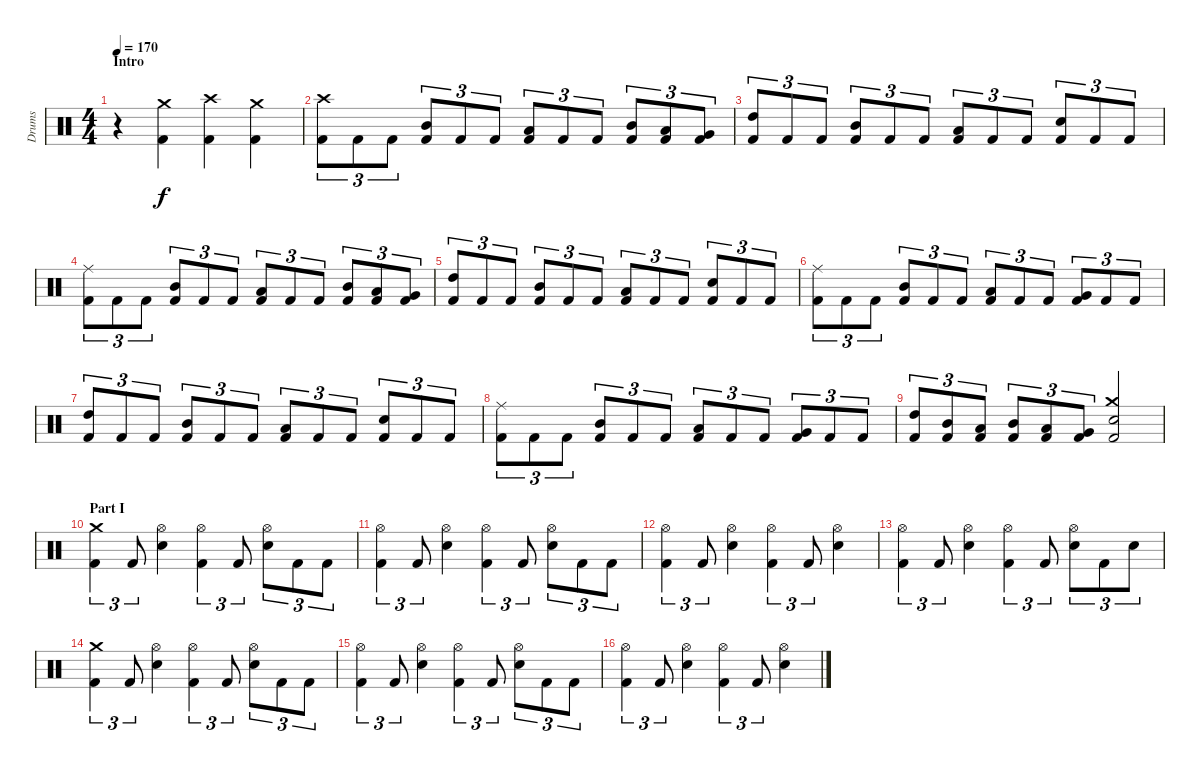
\track ("Drums" "Drums") {instrument percussion}
\staff {score}
\articulation defaults
\ts (4 4)
\section ("" "Intro")
\tempo 170
\clef neutral
\ks c
r.4{dy f} ("Kick (hit) 2" "Crash medium (hit)").4 ("Kick (hit) 2" "Crash high (hit)").4 ("Kick (hit) 2" "Crash medium (hit)").4 |
("Kick (hit) 2" "Crash high (hit)").8{tu (3 2)} "Kick (hit) 2".8{tu (3 2)} "Kick (hit) 2".8{tu (3 2)} ("Kick (hit) 2" "Mid Tom (hit)").8{tu (3 2)} "Kick (hit) 2".8{tu (3 2)} "Kick (hit) 2".8{tu (3 2)} ("Kick (hit) 2" "Low Tom (hit)").8{tu (3 2)} "Kick (hit) 2".8{tu (3 2)} "Kick (hit) 2".8{tu (3 2)} ("Kick (hit) 2" "Mid Tom (hit)").8{tu (3 2)} ("Kick (hit) 2" "Low Tom (hit)").8{tu (3 2)} ("Kick (hit) 2" "Very Low Tom (hit)").8{tu (3 2)} |
("Kick (hit) 2" "High Tom (hit)").8{tu (3 2)} "Kick (hit) 2".8{tu (3 2)} "Kick (hit) 2".8{tu (3 2)} ("Kick (hit) 2" "Mid Tom (hit)").8{tu (3 2)} "Kick (hit) 2".8{tu (3 2)} "Kick (hit) 2".8{tu (3 2)} ("Kick (hit) 2" "Low Tom (hit)").8{tu (3 2)} "Kick (hit) 2".8{tu (3 2)} "Kick (hit) 2".8{tu (3 2)} ("Kick (hit) 2" "Electric Snare (hit)").8{tu (3 2)} "Kick (hit) 2".8{tu (3 2)} "Kick (hit) 2".8{tu (3 2)} |
("Kick (hit) 2" "Ride (middle)").8{tu (3 2)} "Kick (hit) 2".8{tu (3 2)} "Kick (hit) 2".8{tu (3 2)} ("Kick (hit) 2" "Mid Tom (hit)").8{tu (3 2)} "Kick (hit) 2".8{tu (3 2)} "Kick (hit) 2".8{tu (3 2)} ("Kick (hit) 2" "Low Tom (hit)").8{tu (3 2)} "Kick (hit) 2".8{tu (3 2)} "Kick (hit) 2".8{tu (3 2)} ("Kick (hit) 2" "Mid Tom (hit)").8{tu (3 2)} ("Kick (hit) 2" "Low Tom (hit)").8{tu (3 2)} ("Kick (hit) 2" "Very Low Tom (hit)").8{tu (3 2)} |
("Kick (hit) 2" "High Tom (hit)").8{tu (3 2)} "Kick (hit) 2".8{tu (3 2)} "Kick (hit) 2".8{tu (3 2)} ("Kick (hit) 2" "Mid Tom (hit)").8{tu (3 2)} "Kick (hit) 2".8{tu (3 2)} "Kick (hit) 2".8{tu (3 2)} ("Kick (hit) 2" "Low Tom (hit)").8{tu (3 2)} "Kick (hit) 2".8{tu (3 2)} "Kick (hit) 2".8{tu (3 2)} ("Kick (hit) 2" "Electric Snare (hit)").8{tu (3 2)} "Kick (hit) 2".8{tu (3 2)} "Kick (hit) 2".8{tu (3 2)} |
("Kick (hit) 2" "Ride (middle)").8{tu (3 2)} "Kick (hit) 2".8{tu (3 2)} "Kick (hit) 2".8{tu (3 2)} ("Kick (hit) 2" "Mid Tom (hit)").8{tu (3 2)} "Kick (hit) 2".8{tu (3 2)} "Kick (hit) 2".8{tu (3 2)} ("Kick (hit) 2" "Low Tom (hit)").8{tu (3 2)} "Kick (hit) 2".8{tu (3 2)} "Kick (hit) 2".8{tu (3 2)} ("Kick (hit) 2" "Very Low Tom (hit)").8{tu (3 2)} "Kick (hit) 2".8{tu (3 2)} "Kick (hit) 2".8{tu (3 2)} |
("Kick (hit) 2" "High Tom (hit)").8{tu (3 2)} "Kick (hit) 2".8{tu (3 2)} "Kick (hit) 2".8{tu (3 2)} ("Kick (hit) 2" "Mid Tom (hit)").8{tu (3 2)} "Kick (hit) 2".8{tu (3 2)} "Kick (hit) 2".8{tu (3 2)} ("Kick (hit) 2" "Low Tom (hit)").8{tu (3 2)} "Kick (hit) 2".8{tu (3 2)} "Kick (hit) 2".8{tu (3 2)} ("Kick (hit) 2" "Electric Snare (hit)").8{tu (3 2)} "Kick (hit) 2".8{tu (3 2)} "Kick (hit) 2".8{tu (3 2)} |
("Kick (hit) 2" "Ride (middle)").8{tu (3 2)} "Kick (hit) 2".8{tu (3 2)} "Kick (hit) 2".8{tu (3 2)} ("Kick (hit) 2" "Mid Tom (hit)").8{tu (3 2)} "Kick (hit) 2".8{tu (3 2)} "Kick (hit) 2".8{tu (3 2)} ("Kick (hit) 2" "Low Tom (hit)").8{tu (3 2)} "Kick (hit) 2".8{tu (3 2)} "Kick (hit) 2".8{tu (3 2)} ("Kick (hit) 2" "Very Low Tom (hit)").8{tu (3 2)} "Kick (hit) 2".8{tu (3 2)} "Kick (hit) 2".8{tu (3 2)} |
("Kick (hit) 2" "High Tom (hit)").8{tu (3 2)} ("Kick (hit) 2" "Mid Tom (hit)").8{tu (3 2)} ("Kick (hit) 2" "Low Tom (hit)").8{tu (3 2)} ("Kick (hit) 2" "Mid Tom (hit)").8{tu (3 2)} ("Kick (hit) 2" "Low Tom (hit)").8{tu (3 2)} ("Kick (hit) 2" "Very Low Tom (hit)").8{tu (3 2)} ("Kick (hit) 2" "Electric Snare (hit)" "Crash medium (hit)").2 |
\section ("" "Part I")
("Kick (hit) 2" "Crash medium (hit)").4{tu (3 2)} "Kick (hit) 2".8{tu (3 2)} ("Electric Snare (hit)" "Hi-Hat (open)").4 ("Kick (hit) 2" "Hi-Hat (open)").4{tu (3 2)} "Kick (hit) 2".8{tu (3 2)} ("Electric Snare (hit)" "Hi-Hat (open)").8{tu (3 2)} "Kick (hit) 2".8{tu (3 2)} "Kick (hit) 2".8{tu (3 2)} |
("Kick (hit) 2" "Hi-Hat (open)").4{tu (3 2)} "Kick (hit) 2".8{tu (3 2)} ("Electric Snare (hit)" "Hi-Hat (open)").4 ("Kick (hit) 2" "Hi-Hat (open)").4{tu (3 2)} "Kick (hit) 2".8{tu (3 2)} ("Electric Snare (hit)" "Hi-Hat (open)").8{tu (3 2)} "Kick (hit) 2".8{tu (3 2)} "Kick (hit) 2".8{tu (3 2)} |
("Kick (hit) 2" "Hi-Hat (open)").4{tu (3 2)} "Kick (hit) 2".8{tu (3 2)} ("Electric Snare (hit)" "Hi-Hat (open)").4 ("Kick (hit) 2" "Hi-Hat (open)").4{tu (3 2)} "Kick (hit) 2".8{tu (3 2)} ("Electric Snare (hit)" "Hi-Hat (open)").4 |
("Kick (hit) 2" "Hi-Hat (open)").4{tu (3 2)} "Kick (hit) 2".8{tu (3 2)} ("Electric Snare (hit)" "Hi-Hat (open)").4 ("Kick (hit) 2" "Hi-Hat (open)").4{tu (3 2)} "Kick (hit) 2".8{tu (3 2)} ("Electric Snare (hit)" "Hi-Hat (open)").8{tu (3 2)} "Kick (hit) 2".8{tu (3 2)} "Electric Snare (hit)".8{tu (3 2)} |
("Kick (hit) 2" "Crash medium (hit)").4{tu (3 2)} "Kick (hit) 2".8{tu (3 2)} ("Electric Snare (hit)" "Hi-Hat (open)").4 ("Kick (hit) 2" "Hi-Hat (open)").4{tu (3 2)} "Kick (hit) 2".8{tu (3 2)} ("Electric Snare (hit)" "Hi-Hat (open)").8{tu (3 2)} "Kick (hit) 2".8{tu (3 2)} "Kick (hit) 2".8{tu (3 2)} |
("Kick (hit) 2" "Hi-Hat (open)").4{tu (3 2)} "Kick (hit) 2".8{tu (3 2)} ("Electric Snare (hit)" "Hi-Hat (open)").4 ("Kick (hit) 2" "Hi-Hat (open)").4{tu (3 2)} "Kick (hit) 2".8{tu (3 2)} ("Electric Snare (hit)" "Hi-Hat (open)").8{tu (3 2)} "Kick (hit) 2".8{tu (3 2)} "Kick (hit) 2".8{tu (3 2)} |
("Kick (hit) 2" "Hi-Hat (open)").4{tu (3 2)} "Kick (hit) 2".8{tu (3 2)} ("Electric Snare (hit)" "Hi-Hat (open)").4 ("Kick (hit) 2" "Hi-Hat (open)").4{tu (3 2)} "Kick (hit) 2".8{tu (3 2)} ("Electric Snare (hit)" "Hi-Hat (open)").4
